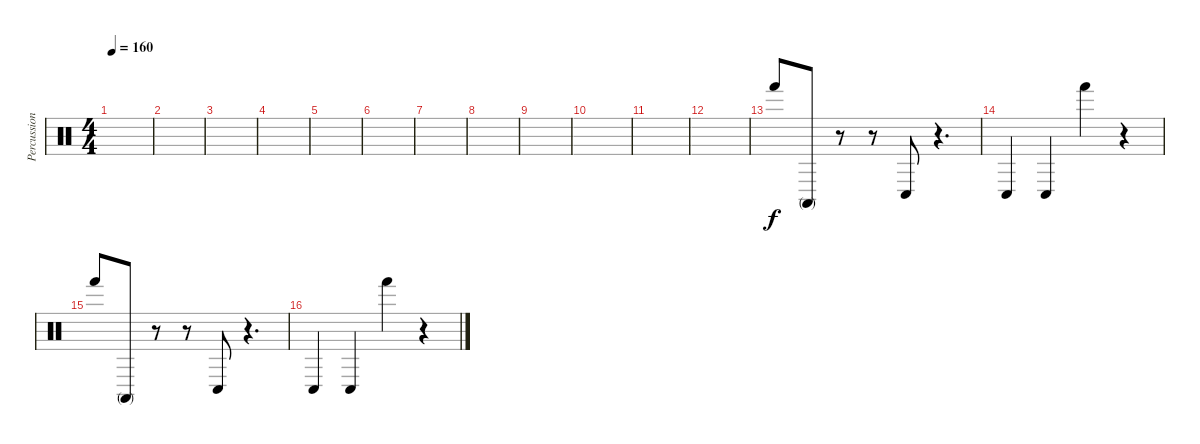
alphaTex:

\track ("Percussion" "Percussion") {instrument percussion}
\staff {score}
\articulation defaults
\ts (4 4)
\tempo 160
\clef neutral
\ks c
|
|
|
|
|
|
|
|
|
|
|
|
"Hand (hit)".8 "Conga high (mute)".8 r.8 r.8 "Conga low (hit)".8 r.4{d} |
"Conga low (hit)".4 "Conga low (hit)".4 "Hand (hit)".4 r.4 |
"Hand (hit)".8 "Conga high (mute)".8 r.8 r.8 "Conga low (hit)".8 r.4{d} |
"Conga low (hit)".4 "Conga low (hit)".4 "Hand (hit)".4 r.4
